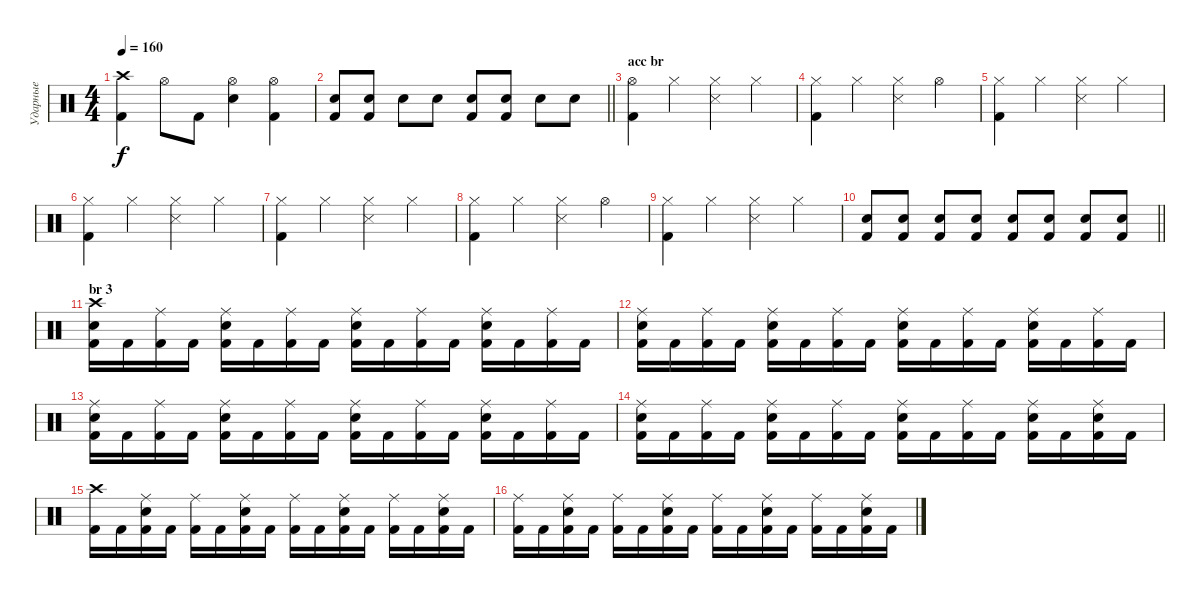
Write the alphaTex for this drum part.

\track ("Ударные" "Ударные") {instrument percussion}
\staff {score}
\articulation defaults
\ts (4 4)
\tempo 160
\clef neutral
\ks c
("Crash high (hit)" "Kick (hit) 2").4{dy f} "Hi-Hat (open)".8 "Kick (hit) 2".8 ("Hi-Hat (open)" "Electric Snare (hit)").4 ("Hi-Hat (open)" "Kick (hit) 2").4 |
\barLineRight lightlight
("Electric Snare (hit)" "Kick (hit) 2").8 ("Electric Snare (hit)" "Kick (hit) 2").8 "Electric Snare (hit)".8 "Electric Snare (hit)".8 ("Electric Snare (hit)" "Kick (hit) 2").8 ("Electric Snare (hit)" "Kick (hit) 2").8 "Electric Snare (hit)".8 "Electric Snare (hit)".8 |
\section ("" "acc br")
("Hi-Hat (open)" "Kick (hit) 2").4 "Hi-Hat (closed)".4 ("Hi-Hat (closed)" "Snare (side stick) 3").4 "Hi-Hat (closed)".4 |
("Hi-Hat (closed)" "Kick (hit) 2").4 "Hi-Hat (closed)".4 ("Hi-Hat (closed)" "Snare (side stick) 3").4 "Hi-Hat (open)".4 |
("Hi-Hat (closed)" "Kick (hit) 2").4 "Hi-Hat (closed)".4 ("Hi-Hat (closed)" "Snare (side stick) 3").4 "Hi-Hat (closed)".4 |
("Hi-Hat (closed)" "Kick (hit) 2").4 "Hi-Hat (closed)".4 ("Hi-Hat (closed)" "Snare (side stick) 3").4 "Hi-Hat (closed)".4 |
("Hi-Hat (closed)" "Kick (hit) 2").4 "Hi-Hat (closed)".4 ("Hi-Hat (closed)" "Snare (side stick) 3").4 "Hi-Hat (closed)".4 |
("Hi-Hat (closed)" "Kick (hit) 2").4 "Hi-Hat (closed)".4 ("Hi-Hat (closed)" "Snare (side stick) 3").4 "Hi-Hat (open)".4 |
("Hi-Hat (closed)" "Kick (hit) 2").4 "Hi-Hat (closed)".4 ("Hi-Hat (closed)" "Snare (side stick) 3").4 "Hi-Hat (closed)".4 |
\barLineRight lightlight
("Electric Snare (hit)" "Kick (hit) 2").8 ("Electric Snare (hit)" "Kick (hit) 2").8 ("Electric Snare (hit)" "Kick (hit) 2").8 ("Electric Snare (hit)" "Kick (hit) 2").8 ("Electric Snare (hit)" "Kick (hit) 2").8 ("Electric Snare (hit)" "Kick (hit) 2").8 ("Electric Snare (hit)" "Kick (hit) 2").8 ("Electric Snare (hit)" "Kick (hit) 2").8 |
\section ("" "br 3")
("Crash high (hit)" "Electric Snare (hit)" "Kick (hit) 2").16 "Kick (hit) 2".16 ("Ride (middle)" "Kick (hit) 2").16 "Kick (hit) 2".16 ("Ride (middle)" "Electric Snare (hit)" "Kick (hit) 2").16 "Kick (hit) 2".16 ("Ride (middle)" "Kick (hit) 2").16 "Kick (hit) 2".16 ("Ride (middle)" "Electric Snare (hit)" "Kick (hit) 2").16 "Kick (hit) 2".16 ("Ride (middle)" "Kick (hit) 2").16 "Kick (hit) 2".16 ("Ride (middle)" "Electric Snare (hit)" "Kick (hit) 2").16 "Kick (hit) 2".16 ("Ride (middle)" "Kick (hit) 2").16 "Kick (hit) 2".16 |
("Ride (middle)" "Electric Snare (hit)" "Kick (hit) 2").16 "Kick (hit) 2".16 ("Ride (middle)" "Kick (hit) 2").16 "Kick (hit) 2".16 ("Ride (middle)" "Electric Snare (hit)" "Kick (hit) 2").16 "Kick (hit) 2".16 ("Ride (middle)" "Kick (hit) 2").16 "Kick (hit) 2".16 ("Ride (middle)" "Electric Snare (hit)" "Kick (hit) 2").16 "Kick (hit) 2".16 ("Ride (middle)" "Kick (hit) 2").16 "Kick (hit) 2".16 ("Ride (middle)" "Electric Snare (hit)" "Kick (hit) 2").16 "Kick (hit) 2".16 ("Ride (middle)" "Kick (hit) 2").16 "Kick (hit) 2".16 |
("Ride (middle)" "Electric Snare (hit)" "Kick (hit) 2").16 "Kick (hit) 2".16 ("Ride (middle)" "Kick (hit) 2").16 "Kick (hit) 2".16 ("Ride (middle)" "Electric Snare (hit)" "Kick (hit) 2").16 "Kick (hit) 2".16 ("Ride (middle)" "Kick (hit) 2").16 "Kick (hit) 2".16 ("Ride (middle)" "Electric Snare (hit)" "Kick (hit) 2").16 "Kick (hit) 2".16 ("Ride (middle)" "Kick (hit) 2").16 "Kick (hit) 2".16 ("Ride (middle)" "Electric Snare (hit)" "Kick (hit) 2").16 "Kick (hit) 2".16 ("Ride (middle)" "Kick (hit) 2").16 "Kick (hit) 2".16 |
("Ride (middle)" "Electric Snare (hit)" "Kick (hit) 2").16 "Kick (hit) 2".16 ("Ride (middle)" "Kick (hit) 2").16 "Kick (hit) 2".16 ("Ride (middle)" "Electric Snare (hit)" "Kick (hit) 2").16 "Kick (hit) 2".16 ("Ride (middle)" "Kick (hit) 2").16 "Kick (hit) 2".16 ("Ride (middle)" "Electric Snare (hit)" "Kick (hit) 2").16 "Kick (hit) 2".16 ("Ride (middle)" "Kick (hit) 2").16 "Kick (hit) 2".16 ("Ride (middle)" "Electric Snare (hit)" "Kick (hit) 2").16 "Kick (hit) 2".16 ("Ride (middle)" "Electric Snare (hit)" "Kick (hit) 2").16 "Kick (hit) 2".16 |
("Crash high (hit)" "Kick (hit) 2").16 "Kick (hit) 2".16 ("Ride (middle)" "Electric Snare (hit)" "Kick (hit) 2").16 "Kick (hit) 2".16 ("Ride (middle)" "Kick (hit) 2").16 "Kick (hit) 2".16 ("Ride (middle)" "Electric Snare (hit)" "Kick (hit) 2").16 "Kick (hit) 2".16 ("Ride (middle)" "Kick (hit) 2").16 "Kick (hit) 2".16 ("Ride (middle)" "Electric Snare (hit)" "Kick (hit) 2").16 "Kick (hit) 2".16 ("Ride (middle)" "Kick (hit) 2").16 "Kick (hit) 2".16 ("Ride (middle)" "Electric Snare (hit)" "Kick (hit) 2").16 "Kick (hit) 2".16 |
("Ride (middle)" "Kick (hit) 2").16 "Kick (hit) 2".16 ("Ride (middle)" "Electric Snare (hit)" "Kick (hit) 2").16 "Kick (hit) 2".16 ("Ride (middle)" "Kick (hit) 2").16 "Kick (hit) 2".16 ("Ride (middle)" "Electric Snare (hit)" "Kick (hit) 2").16 "Kick (hit) 2".16 ("Ride (middle)" "Kick (hit) 2").16 "Kick (hit) 2".16 ("Ride (middle)" "Electric Snare (hit)" "Kick (hit) 2").16 "Kick (hit) 2".16 ("Ride (middle)" "Kick (hit) 2").16 "Kick (hit) 2".16 ("Ride (middle)" "Electric Snare (hit)" "Kick (hit) 2").16 "Kick (hit) 2".16
